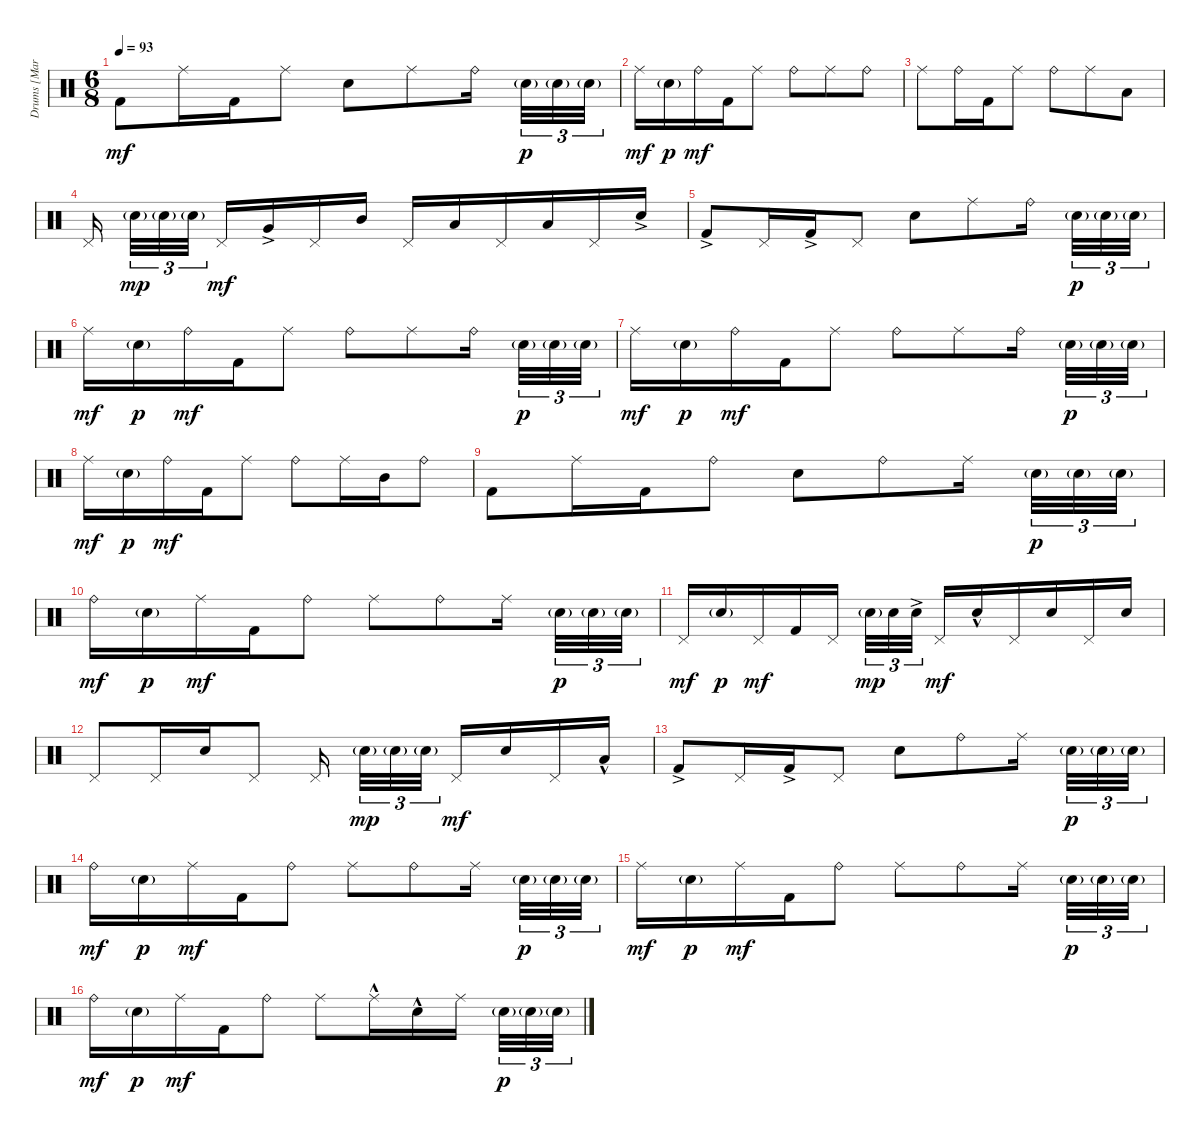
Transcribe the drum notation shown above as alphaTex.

\track ("Drums [Martin Lopez]" "Drums [Mar") {instrument percussion}
\staff {score}
\articulation defaults
\ts (6 8)
\tempo 93
\clef neutral
\ks c "Kick (hit) 2".8{dy mf} "Ride (middle)".16 "Kick (hit) 2".16 "Ride (middle)".8 "Snare (hit) 2".8 "Ride (middle)".8 "Ride (bell)".16 "Snare (hit) 2"{g}.32{tu (3 2) dy p} "Snare (hit) 2"{g}.32{tu (3 2)} "Snare (hit) 2"{g}.32{tu (3 2)}
|
"Ride (middle)".16{dy mf} "Snare (hit) 2"{g}.16{dy p} "Ride (bell)".16{dy mf} "Kick (hit) 2".16 "Ride (middle)".8 "Ride (bell)".8 "Ride (middle)".8 "Ride (bell)".8 |
"Ride (middle)".8 "Ride (bell)".16 "Kick (hit) 2".16 "Ride (middle)".8 "Ride (bell)".8 "Ride (middle)".8 "Low Tom (hit)".8 |
"Pedal Hi-Hat (hit)".16 "Snare (hit) 2"{g}.32{tu (3 2) dy mp} "Snare (hit) 2"{g}.32{tu (3 2)} "Snare (hit) 2"{g}.32{tu (3 2)} "Pedal Hi-Hat (hit)".16{dy mf} "Very Low Tom (hit)"{ac}.16 "Pedal Hi-Hat (hit)".16 "Mid Tom (hit)".16 "Pedal Hi-Hat (hit)".16 "Low Tom (hit)".16 "Pedal Hi-Hat (hit)".16 "Low Tom (hit)".16 "Pedal Hi-Hat (hit)".16 "Snare (hit) 2"{ac}.16 |
"Kick (hit) 2"{ac}.8 "Pedal Hi-Hat (hit)".16 "Kick (hit) 2"{ac}.16 "Pedal Hi-Hat (hit)".8 "Snare (hit) 2".8 "Ride (middle)".8 "Ride (bell)".16 "Snare (hit) 2"{g}.32{tu (3 2) dy p} "Snare (hit) 2"{g}.32{tu (3 2)} "Snare (hit) 2"{g}.32{tu (3 2)} |
"Ride (middle)".16{dy mf} "Snare (hit) 2"{g}.16{dy p} "Ride (bell)".16{dy mf} "Kick (hit) 2".16 "Ride (middle)".8 "Ride (bell)".8 "Ride (middle)".8 "Ride (bell)".16 "Snare (hit) 2"{g}.32{tu (3 2) dy p} "Snare (hit) 2"{g}.32{tu (3 2)} "Snare (hit) 2"{g}.32{tu (3 2)} |
"Ride (middle)".16{dy mf} "Snare (hit) 2"{g}.16{dy p} "Ride (bell)".16{dy mf} "Kick (hit) 2".16 "Ride (middle)".8 "Ride (bell)".8 "Ride (middle)".8 "Ride (bell)".16 "Snare (hit) 2"{g}.32{tu (3 2) dy p} "Snare (hit) 2"{g}.32{tu (3 2)} "Snare (hit) 2"{g}.32{tu (3 2)} |
"Ride (middle)".16{dy mf} "Snare (hit) 2"{g}.16{dy p} "Ride (bell)".16{dy mf} "Kick (hit) 2".16 "Ride (middle)".8 "Ride (bell)".8 "Ride (middle)".16 "Mid Tom (hit)".16 "Ride (bell)".8 |
"Kick (hit) 2".8 "Ride (middle)".16 "Kick (hit) 2".16 "Ride (bell)".8 "Snare (hit) 2".8 "Ride (bell)".8 "Ride (middle)".16 "Snare (hit) 2"{g}.32{tu (3 2) dy p} "Snare (hit) 2"{g}.32{tu (3 2)} "Snare (hit) 2"{g}.32{tu (3 2)} |
"Ride (bell)".16{dy mf} "Snare (hit) 2"{g}.16{dy p} "Ride (middle)".16{dy mf} "Kick (hit) 2".16 "Ride (bell)".8 "Ride (middle)".8 "Ride (bell)".8 "Ride (middle)".16 "Snare (hit) 2"{g}.32{tu (3 2) dy p} "Snare (hit) 2"{g}.32{tu (3 2)} "Snare (hit) 2"{g}.32{tu (3 2)} |
"Pedal Hi-Hat (hit)".16{dy mf} "Snare (hit) 2"{g}.16{dy p} "Pedal Hi-Hat (hit)".16{dy mf} "Kick (hit) 2".16 "Pedal Hi-Hat (hit)".16 "Snare (hit) 2"{g}.32{tu (3 2) dy mp} "Snare (hit) 2".32{tu (3 2)} "Snare (hit) 2"{ac}.32{tu (3 2)} "Pedal Hi-Hat (hit)".16{dy mf} "Snare (hit) 2"{hac}.16 "Pedal Hi-Hat (hit)".16 "Snare (hit) 2".16 "Pedal Hi-Hat (hit)".16 "Snare (hit) 2".16 |
"Pedal Hi-Hat (hit)".8 "Pedal Hi-Hat (hit)".16 "Snare (hit) 2".16 "Pedal Hi-Hat (hit)".8 "Pedal Hi-Hat (hit)".16 "Snare (hit) 2"{g}.32{tu (3 2) dy mp} "Snare (hit) 2"{g}.32{tu (3 2)} "Snare (hit) 2"{g}.32{tu (3 2)} "Pedal Hi-Hat (hit)".16{dy mf} "Snare (hit) 2".16 "Pedal Hi-Hat (hit)".16 "Low Tom (hit)"{hac}.16 |
"Kick (hit) 2"{ac}.8 "Pedal Hi-Hat (hit)".16 "Kick (hit) 2"{ac}.16 "Pedal Hi-Hat (hit)".8 "Snare (hit) 2".8 "Ride (bell)".8 "Ride (middle)".16 "Snare (hit) 2"{g}.32{tu (3 2) dy p} "Snare (hit) 2"{g}.32{tu (3 2)} "Snare (hit) 2"{g}.32{tu (3 2)} |
"Ride (bell)".16{dy mf} "Snare (hit) 2"{g}.16{dy p} "Ride (middle)".16{dy mf} "Kick (hit) 2".16 "Ride (bell)".8 "Ride (middle)".8 "Ride (bell)".8 "Ride (middle)".16 "Snare (hit) 2"{g}.32{tu (3 2) dy p} "Snare (hit) 2"{g}.32{tu (3 2)} "Snare (hit) 2"{g}.32{tu (3 2)} |
"Ride (middle)".16{dy mf} "Snare (hit) 2"{g}.16{dy p} "Ride (middle)".16{dy mf} "Kick (hit) 2".16 "Ride (bell)".8 "Ride (middle)".8 "Ride (bell)".8 "Ride (middle)".16 "Snare (hit) 2"{g}.32{tu (3 2) dy p} "Snare (hit) 2"{g}.32{tu (3 2)} "Snare (hit) 2"{g}.32{tu (3 2)} |
"Ride (bell)".16{dy mf} "Snare (hit) 2"{g}.16{dy p} "Ride (middle)".16{dy mf} "Kick (hit) 2".16 "Ride (bell)".8 "Ride (middle)".8 "Ride (middle)"{hac}.16 "Snare (hit) 2"{hac}.16 "Ride (middle)".16 "Snare (hit) 2"{g}.32{tu (3 2) dy p} "Snare (hit) 2"{g}.32{tu (3 2)} "Snare (hit) 2"{g}.32{tu (3 2)}
